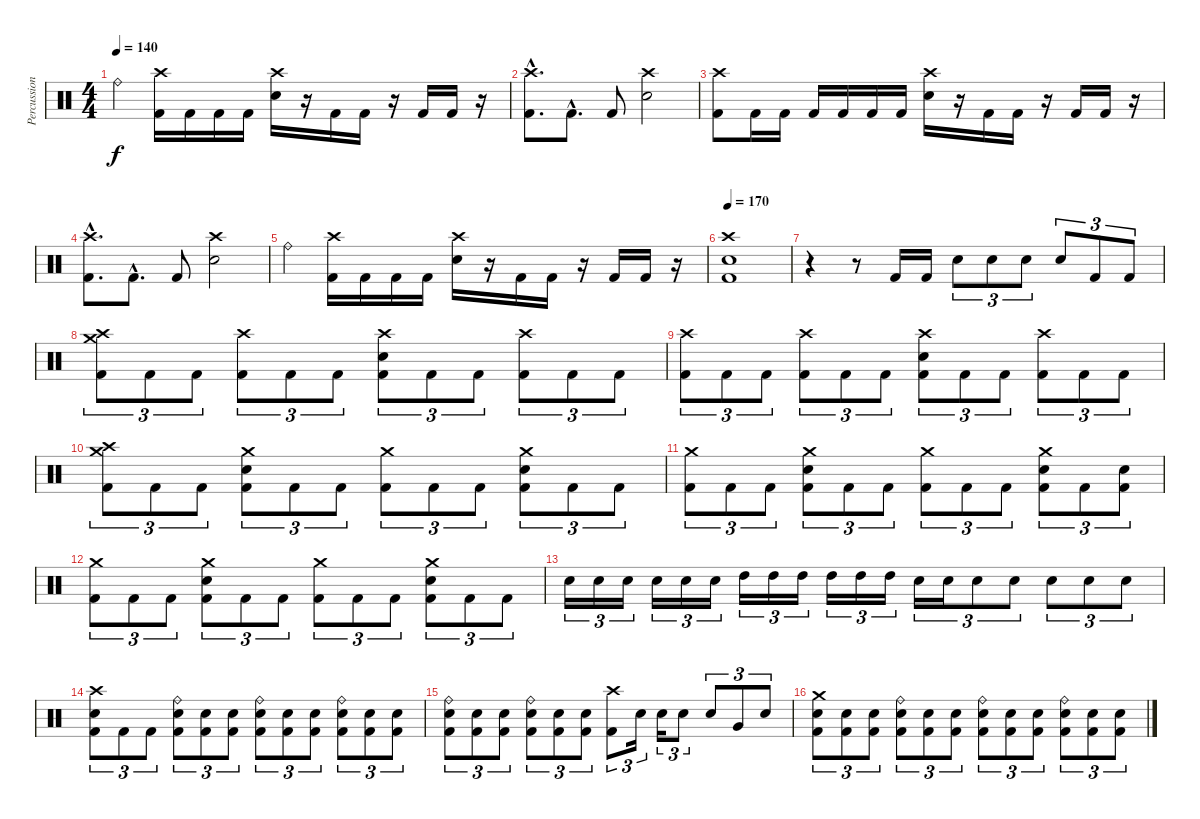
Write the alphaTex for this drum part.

\track ("Percussion" "Percussion") {instrument percussion}
\staff {score}
\articulation defaults
\ts (4 4)
\tempo 140
\clef neutral
\ks c "Ride (bell)".4{dy f}
("Crash high (hit)" "Kick (hit) 2").16 "Kick (hit) 2".16 "Kick (hit) 2".16 "Kick (hit) 2".16 ("Crash high (hit)" "Electric Snare (hit)").16 r.16 "Kick (hit) 2".16 "Kick (hit) 2".16 r.16 "Kick (hit) 2".16 "Kick (hit) 2".16 r.16 |
("Crash high (hit)"{hac} "Kick (hit) 2"{hac}).8{d} "Kick (hit) 2"{hac}.8{d} "Kick (hit) 2".8 ("Crash high (hit)" "Electric Snare (hit)").2 |
("Crash high (hit)" "Kick (hit) 2").8 "Kick (hit) 2".16 "Kick (hit) 2".16 "Kick (hit) 2".16 "Kick (hit) 2".16 "Kick (hit) 2".16 "Kick (hit) 2".16 ("Crash high (hit)" "Electric Snare (hit)").16 r.16 "Kick (hit) 2".16 "Kick (hit) 2".16 r.16 "Kick (hit) 2".16 "Kick (hit) 2".16 r.16 |
("Crash high (hit)"{hac} "Kick (hit) 2"{hac}).8{d} "Kick (hit) 2"{hac}.8{d} "Kick (hit) 2".8 ("Crash high (hit)" "Electric Snare (hit)").2 |
"Ride (bell)".4 ("Crash high (hit)" "Kick (hit) 2").16 "Kick (hit) 2".16 "Kick (hit) 2".16 "Kick (hit) 2".16 ("Crash high (hit)" "Electric Snare (hit)").16 r.16 "Kick (hit) 2".16 "Kick (hit) 2".16 r.16 "Kick (hit) 2".16 "Kick (hit) 2".16 r.16 |
\tempo 170
("Crash high (hit)" "Electric Snare (hit)" "Kick (hit) 2").1 |
r.4 r.8 "Kick (hit) 2".16 "Kick (hit) 2".16 "Electric Snare (hit)".8{tu (3 2)} "Electric Snare (hit)".8{tu (3 2)} "Electric Snare (hit)".8{tu (3 2)} "Electric Snare (hit)".8{tu (3 2)} "Kick (hit) 2".8{tu (3 2)} "Kick (hit) 2".8{tu (3 2)} |
("Crash medium (hit)" "Crash high (hit)" "Kick (hit) 2").8{tu (3 2)} "Kick (hit) 2".8{tu (3 2)} "Kick (hit) 2".8{tu (3 2)} ("Crash high (hit)" "Kick (hit) 2").8{tu (3 2)} "Kick (hit) 2".8{tu (3 2)} "Kick (hit) 2".8{tu (3 2)} ("Crash high (hit)" "Electric Snare (hit)" "Kick (hit) 2").8{tu (3 2)} "Kick (hit) 2".8{tu (3 2)} "Kick (hit) 2".8{tu (3 2)} ("Crash high (hit)" "Kick (hit) 2").8{tu (3 2)} "Kick (hit) 2".8{tu (3 2)} "Kick (hit) 2".8{tu (3 2)} |
("Crash high (hit)" "Kick (hit) 2").8{tu (3 2)} "Kick (hit) 2".8{tu (3 2)} "Kick (hit) 2".8{tu (3 2)} ("Crash high (hit)" "Kick (hit) 2").8{tu (3 2)} "Kick (hit) 2".8{tu (3 2)} "Kick (hit) 2".8{tu (3 2)} ("Crash high (hit)" "Electric Snare (hit)" "Kick (hit) 2").8{tu (3 2)} "Kick (hit) 2".8{tu (3 2)} "Kick (hit) 2".8{tu (3 2)} ("Crash high (hit)" "Kick (hit) 2").8{tu (3 2)} "Kick (hit) 2".8{tu (3 2)} "Kick (hit) 2".8{tu (3 2)} |
("Crash high (hit)" "Crash medium (hit)" "Kick (hit) 2").8{tu (3 2)} "Kick (hit) 2".8{tu (3 2)} "Kick (hit) 2".8{tu (3 2)} ("Crash medium (hit)" "Electric Snare (hit)" "Kick (hit) 2").8{tu (3 2)} "Kick (hit) 2".8{tu (3 2)} "Kick (hit) 2".8{tu (3 2)} ("Crash medium (hit)" "Kick (hit) 2").8{tu (3 2)} "Kick (hit) 2".8{tu (3 2)} "Kick (hit) 2".8{tu (3 2)} ("Crash medium (hit)" "Electric Snare (hit)" "Kick (hit) 2").8{tu (3 2)} "Kick (hit) 2".8{tu (3 2)} "Kick (hit) 2".8{tu (3 2)} |
("Crash medium (hit)" "Kick (hit) 2").8{tu (3 2)} "Kick (hit) 2".8{tu (3 2)} "Kick (hit) 2".8{tu (3 2)} ("Crash medium (hit)" "Electric Snare (hit)" "Kick (hit) 2").8{tu (3 2)} "Kick (hit) 2".8{tu (3 2)} "Kick (hit) 2".8{tu (3 2)} ("Crash medium (hit)" "Kick (hit) 2").8{tu (3 2)} "Kick (hit) 2".8{tu (3 2)} "Kick (hit) 2".8{tu (3 2)} ("Crash medium (hit)" "Electric Snare (hit)" "Kick (hit) 2").8{tu (3 2)} "Kick (hit) 2".8{tu (3 2)} ("Electric Snare (hit)" "Kick (hit) 2").8{tu (3 2)} |
("Crash medium (hit)" "Kick (hit) 2").8{tu (3 2)} "Kick (hit) 2".8{tu (3 2)} "Kick (hit) 2".8{tu (3 2)} ("Crash medium (hit)" "Electric Snare (hit)" "Kick (hit) 2").8{tu (3 2)} "Kick (hit) 2".8{tu (3 2)} "Kick (hit) 2".8{tu (3 2)} ("Crash medium (hit)" "Kick (hit) 2").8{tu (3 2)} "Kick (hit) 2".8{tu (3 2)} "Kick (hit) 2".8{tu (3 2)} ("Crash medium (hit)" "Electric Snare (hit)" "Kick (hit) 2").8{tu (3 2)} "Kick (hit) 2".8{tu (3 2)} "Kick (hit) 2".8{tu (3 2)} |
"Electric Snare (hit)".16{tu (3 2)} "Electric Snare (hit)".16{tu (3 2)} "Electric Snare (hit)".16{tu (3 2)} "Electric Snare (hit)".16{tu (3 2)} "Electric Snare (hit)".16{tu (3 2)} "Electric Snare (hit)".16{tu (3 2)} "High Tom (hit)".16{tu (3 2)} "High Tom (hit)".16{tu (3 2)} "High Tom (hit)".16{tu (3 2)} "High Tom (hit)".16{tu (3 2)} "High Tom (hit)".16{tu (3 2)} "High Tom (hit)".16{tu (3 2)} "Electric Snare (hit)".16{tu (3 2)} "Electric Snare (hit)".16{tu (3 2)} "Electric Snare (hit)".8{tu (3 2)} "Electric Snare (hit)".8{tu (3 2)} "Electric Snare (hit)".8{tu (3 2)} "Electric Snare (hit)".8{tu (3 2)} "Electric Snare (hit)".8{tu (3 2)} |
("Crash high (hit)" "Electric Snare (hit)" "Kick (hit) 2").8{tu (3 2)} "Kick (hit) 2".8{tu (3 2)} "Kick (hit) 2".8{tu (3 2)} ("Ride (bell)" "Electric Snare (hit)" "Kick (hit) 2").8{tu (3 2)} ("Electric Snare (hit)" "Kick (hit) 2").8{tu (3 2)} ("Electric Snare (hit)" "Kick (hit) 2").8{tu (3 2)} ("Ride (bell)" "Electric Snare (hit)" "Kick (hit) 2").8{tu (3 2)} ("Electric Snare (hit)" "Kick (hit) 2").8{tu (3 2)} ("Electric Snare (hit)" "Kick (hit) 2").8{tu (3 2)} ("Ride (bell)" "Electric Snare (hit)" "Kick (hit) 2").8{tu (3 2)} ("Electric Snare (hit)" "Kick (hit) 2").8{tu (3 2)} ("Electric Snare (hit)" "Kick (hit) 2").8{tu (3 2)} |
("Ride (bell)" "Electric Snare (hit)" "Kick (hit) 2").8{tu (3 2)} ("Electric Snare (hit)" "Kick (hit) 2").8{tu (3 2)} ("Electric Snare (hit)" "Kick (hit) 2").8{tu (3 2)} ("Ride (bell)" "Electric Snare (hit)" "Kick (hit) 2").8{tu (3 2)} ("Electric Snare (hit)" "Kick (hit) 2").8{tu (3 2)} ("Electric Snare (hit)" "Kick (hit) 2").8{tu (3 2)} ("Crash high (hit)" "Kick (hit) 2").8{tu (3 2)} "Electric Snare (hit)".16{tu (3 2)} "Electric Snare (hit)".16{tu (3 2)} "Electric Snare (hit)".8{tu (3 2)} "Electric Snare (hit)".8{tu (3 2)} "Very Low Tom (hit)".8{tu (3 2)} "Electric Snare (hit)".8{tu (3 2)} |
("Crash medium (hit)" "Electric Snare (hit)" "Kick (hit) 2").8{tu (3 2)} ("Electric Snare (hit)" "Kick (hit) 2").8{tu (3 2)} ("Electric Snare (hit)" "Kick (hit) 2").8{tu (3 2)} ("Ride (bell)" "Electric Snare (hit)" "Kick (hit) 2").8{tu (3 2)} ("Electric Snare (hit)" "Kick (hit) 2").8{tu (3 2)} ("Electric Snare (hit)" "Kick (hit) 2").8{tu (3 2)} ("Ride (bell)" "Electric Snare (hit)" "Kick (hit) 2").8{tu (3 2)} ("Electric Snare (hit)" "Kick (hit) 2").8{tu (3 2)} ("Electric Snare (hit)" "Kick (hit) 2").8{tu (3 2)} ("Ride (bell)" "Electric Snare (hit)" "Kick (hit) 2").8{tu (3 2)} ("Electric Snare (hit)" "Kick (hit) 2").8{tu (3 2)} ("Electric Snare (hit)" "Kick (hit) 2").8{tu (3 2)}
